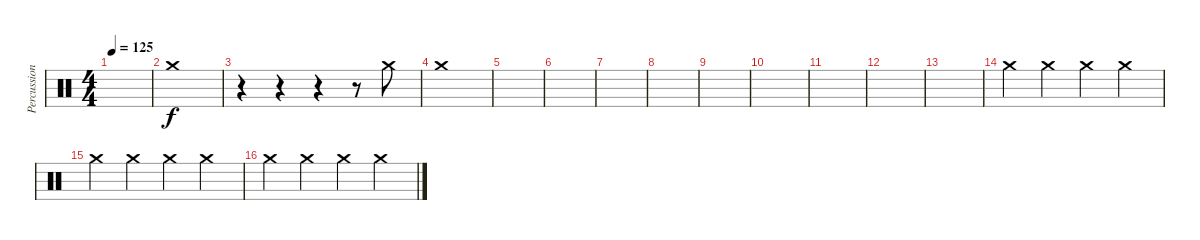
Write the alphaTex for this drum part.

\track ("Percussion" "Percussion") {instrument percussion}
\staff {score}
\articulation defaults
\ts (4 4)
\tempo 125
\clef neutral
\ks c
|
"Crash medium (hit)".1 |
r.4 r.4 r.4 r.8 "Crash medium (hit)".8 |
"Crash medium (hit)".1 |
|
|
|
|
|
|
|
|
|
"Crash medium (hit)".4 "Crash medium (hit)".4 "Crash medium (hit)".4 "Crash medium (hit)".4 |
"Crash medium (hit)".4 "Crash medium (hit)".4 "Crash medium (hit)".4 "Crash medium (hit)".4 |
"Crash medium (hit)".4 "Crash medium (hit)".4 "Crash medium (hit)".4 "Crash medium (hit)".4
